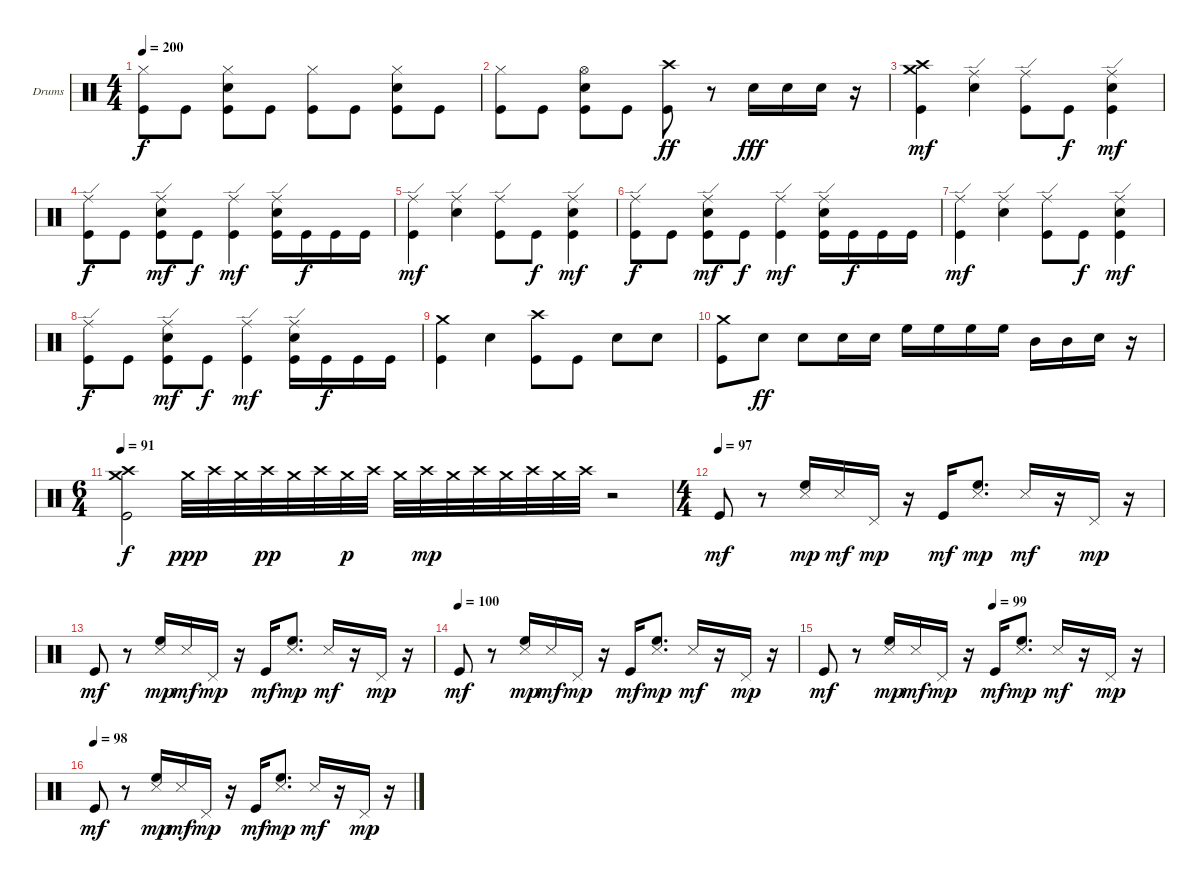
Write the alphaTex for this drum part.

\bracketExtendMode groupsimilarinstruments
\firstSystemTrackNameOrientation horizontal
\otherSystemsTrackNameOrientation horizontal
\track ("Drumkit" "Drums") {instrument percussion}
\staff {score}
\articulation defaults
\ts (4 4)
\tempo 200
\clef neutral
\ks c
("Hi-Hat (closed)" "Kick (hit)").8{dy f} "Kick (hit)".8 ("Hi-Hat (closed)" "Snare (hit) 2" "Kick (hit)").8 "Kick (hit)".8 ("Hi-Hat (closed)" "Kick (hit)").8 "Kick (hit)".8 ("Hi-Hat (closed)" "Snare (hit) 2" "Kick (hit)").8 "Kick (hit)".8 |
("Hi-Hat (closed)" "Kick (hit)").8 "Kick (hit)".8 ("Hi-Hat (open)" "Snare (hit) 2" "Kick (hit)").8 "Kick (hit)".8 ("Crash high (hit)" "Kick (hit)").8{dy ff} r.8 "Snare (hit) 2".16{dy fff} "Snare (hit) 2".16 "Snare (hit) 2".16 r.16 |
("Crash medium (hit)" "Crash high (hit)" "Kick (hit)").4{dy mf} ("Ride (edge)" "Snare (hit) 2").4 ("Ride (edge)" "Kick (hit)").8 "Kick (hit)".8{dy f} ("Ride (edge)" "Snare (hit) 2" "Kick (hit)").4{dy mf} |
("Ride (edge)" "Kick (hit)").8{dy f} "Kick (hit)".8 ("Ride (edge)" "Snare (hit) 2" "Kick (hit)").8{dy mf} "Kick (hit)".8{dy f} ("Ride (edge)" "Kick (hit)").4{dy mf} ("Ride (edge)" "Snare (hit) 2" "Kick (hit)").16 "Kick (hit)".16{dy f} "Kick (hit)".16 "Kick (hit)".16 |
("Ride (edge)" "Kick (hit)").4{dy mf} ("Ride (edge)" "Snare (hit) 2").4 ("Ride (edge)" "Kick (hit)").8 "Kick (hit)".8{dy f} ("Ride (edge)" "Snare (hit) 2" "Kick (hit)").4{dy mf} |
("Ride (edge)" "Kick (hit)").8{dy f} "Kick (hit)".8 ("Ride (edge)" "Snare (hit) 2" "Kick (hit)").8{dy mf} "Kick (hit)".8{dy f} ("Ride (edge)" "Kick (hit)").4{dy mf} ("Ride (edge)" "Snare (hit) 2" "Kick (hit)").16 "Kick (hit)".16{dy f} "Kick (hit)".16 "Kick (hit)".16 |
("Ride (edge)" "Kick (hit)").4{dy mf} ("Ride (edge)" "Snare (hit) 2").4 ("Ride (edge)" "Kick (hit)").8 "Kick (hit)".8{dy f} ("Ride (edge)" "Snare (hit) 2" "Kick (hit)").4{dy mf} |
("Ride (edge)" "Kick (hit)").8{dy f} "Kick (hit)".8 ("Ride (edge)" "Snare (hit) 2" "Kick (hit)").8{dy mf} "Kick (hit)".8{dy f} ("Ride (edge)" "Kick (hit)").4{dy mf} ("Ride (edge)" "Snare (hit) 2" "Kick (hit)").16 "Kick (hit)".16{dy f} "Kick (hit)".16 "Kick (hit)".16 |
("Crash medium (hit)" "Kick (hit)").4 "Snare (hit) 2".4 ("Crash high (hit)" "Kick (hit)").8 "Kick (hit)".8 "Snare (hit) 2".8 "Snare (hit) 2".8 |
("Crash medium (hit)" "Kick (hit)").8 "Snare (hit) 2".8{dy ff} "Snare (hit) 2".8 "Snare (hit) 2".16 "Snare (hit) 2".16 "High Floor Tom (hit)".16 "High Floor Tom (hit)".16 "High Floor Tom (hit)".16 "High Floor Tom (hit)".16 "Mid Tom (hit)".16 "Mid Tom (hit)".16 "Snare (hit) 2".16 r.16 |
\ts (6 4)
\beaming (8 6 6)
\tempo 91
("Crash medium (hit)" "Crash high (hit)" "Kick (hit)").2{dy f} "Crash medium (hit)".32{dy ppp} "Crash high (hit)".32 "Crash medium (hit)".32 "Crash high (hit)".32{dy pp} "Crash medium (hit)".32 "Crash high (hit)".32 "Crash medium (hit)".32{dy p} "Crash high (hit)".32 "Crash medium (hit)".32 "Crash high (hit)".32{dy mp} "Crash medium (hit)".32 "Crash high (hit)".32 "Crash medium (hit)".32 "Crash high (hit)".32 "Crash medium (hit)".32 "Crash high (hit)".32 r.2 |
\ts (4 4)
\beaming (8 2 2 2 2)
\tempo (97)
"Kick (hit)".8{dy mf} r.8 ("High Floor Tom (hit)" "Snare (side stick) 3").16{dy mp} "Snare (side stick) 3".16{dy mf} "Pedal Hi-Hat (hit)".16{dy mp} r.16 "Kick (hit)".16{dy mf} ("High Floor Tom (hit)" "Snare (side stick) 3").8{d dy mp} "Snare (side stick) 3".16{dy mf} r.16 "Pedal Hi-Hat (hit)".16{dy mp} r.16 |
"Kick (hit)".8{dy mf} r.8 ("High Floor Tom (hit)" "Snare (side stick) 3").16{dy mp} "Snare (side stick) 3".16{dy mf} "Pedal Hi-Hat (hit)".16{dy mp} r.16 "Kick (hit)".16{dy mf} ("High Floor Tom (hit)" "Snare (side stick) 3").8{d dy mp} "Snare (side stick) 3".16{dy mf} r.16 "Pedal Hi-Hat (hit)".16{dy mp} r.16 |
\tempo (100)
"Kick (hit)".8{dy mf} r.8 ("High Floor Tom (hit)" "Snare (side stick) 3").16{dy mp} "Snare (side stick) 3".16{dy mf} "Pedal Hi-Hat (hit)".16{dy mp} r.16 "Kick (hit)".16{dy mf} ("High Floor Tom (hit)" "Snare (side stick) 3").8{d dy mp} "Snare (side stick) 3".16{dy mf} r.16 "Pedal Hi-Hat (hit)".16{dy mp} r.16 |
\tempo (99 0.5)
"Kick (hit)".8{dy mf} r.8 ("High Floor Tom (hit)" "Snare (side stick) 3").16{dy mp} "Snare (side stick) 3".16{dy mf} "Pedal Hi-Hat (hit)".16{dy mp} r.16 "Kick (hit)".16{dy mf} ("High Floor Tom (hit)" "Snare (side stick) 3").8{d dy mp} "Snare (side stick) 3".16{dy mf} r.16 "Pedal Hi-Hat (hit)".16{dy mp} r.16 |
\tempo (98)
"Kick (hit)".8{dy mf} r.8 ("High Floor Tom (hit)" "Snare (side stick) 3").16{dy mp} "Snare (side stick) 3".16{dy mf} "Pedal Hi-Hat (hit)".16{dy mp} r.16 "Kick (hit)".16{dy mf} ("High Floor Tom (hit)" "Snare (side stick) 3").8{d dy mp} "Snare (side stick) 3".16{dy mf} r.16 "Pedal Hi-Hat (hit)".16{dy mp} r.16
